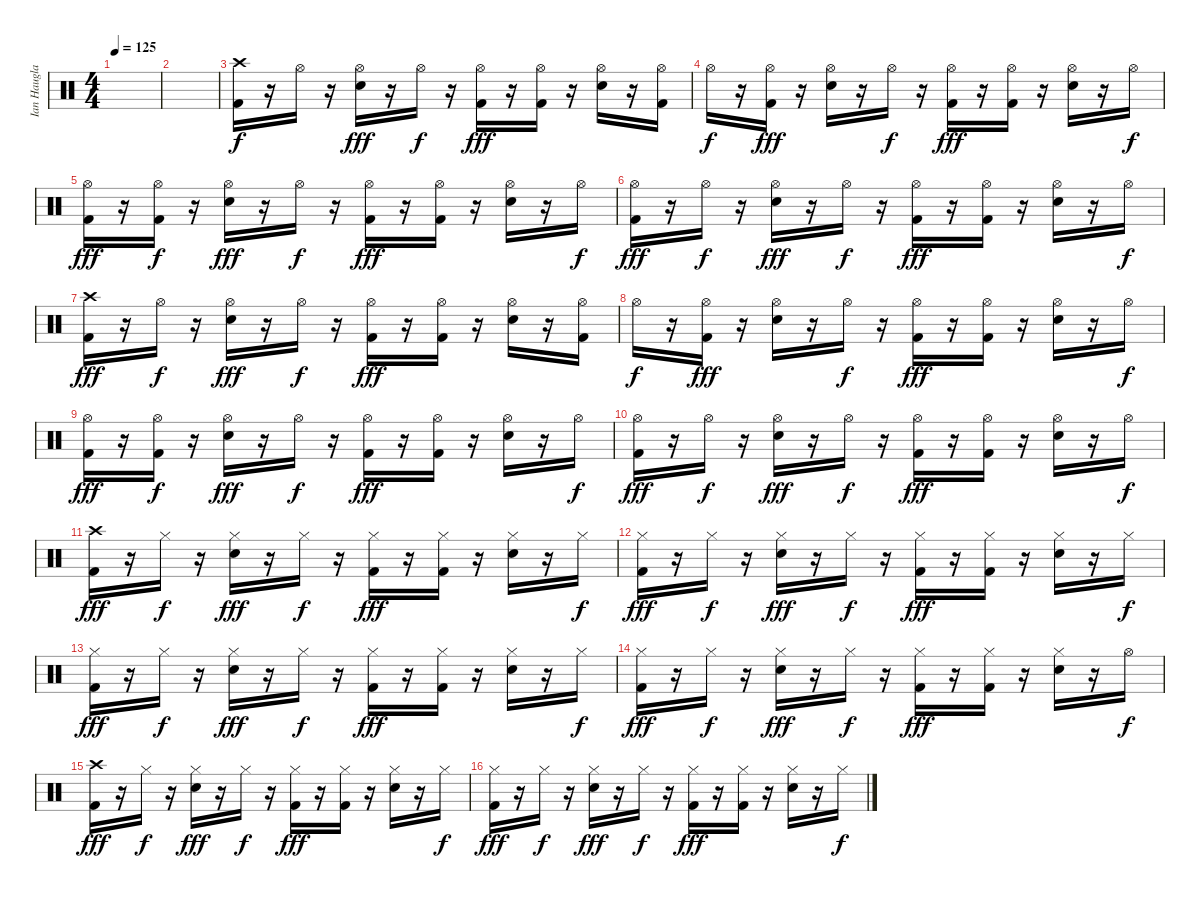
\track ("Ian Haugland" "Ian Haugla") {instrument percussion}
\staff {score}
\articulation defaults
\ts (4 4)
\tempo 125
\clef neutral
\ks c
|
|
("Crash high (hit)" "Kick (hit) 2").16 r.16 "Hi-Hat (open)".16{dy f} r.16 ("Hi-Hat (open)" "Electric Snare (hit)").16{dy fff} r.16 "Hi-Hat (open)".16{dy f} r.16 ("Hi-Hat (open)" "Kick (hit) 2").16{dy fff} r.16 ("Hi-Hat (open)" "Kick (hit) 2").16 r.16 ("Hi-Hat (open)" "Electric Snare (hit)").16 r.16 ("Hi-Hat (open)" "Kick (hit) 2").16 |
"Hi-Hat (open)".16{dy f} r.16 ("Hi-Hat (open)" "Kick (hit) 2").16{dy fff} r.16 ("Hi-Hat (open)" "Electric Snare (hit)").16 r.16 "Hi-Hat (open)".16{dy f} r.16 ("Hi-Hat (open)" "Kick (hit) 2").16{dy fff} r.16 ("Hi-Hat (open)" "Kick (hit) 2").16 r.16 ("Hi-Hat (open)" "Electric Snare (hit)").16 r.16 "Hi-Hat (open)".16{dy f} |
("Hi-Hat (open)" "Kick (hit) 2").16{dy fff} r.16 ("Hi-Hat (open)" "Kick (hit) 2").16{dy f} r.16 ("Hi-Hat (open)" "Electric Snare (hit)").16{dy fff} r.16 "Hi-Hat (open)".16{dy f} r.16 ("Hi-Hat (open)" "Kick (hit) 2").16{dy fff} r.16 ("Hi-Hat (open)" "Kick (hit) 2").16 r.16 ("Hi-Hat (open)" "Electric Snare (hit)").16 r.16 "Hi-Hat (open)".16{dy f} |
("Hi-Hat (open)" "Kick (hit) 2").16{dy fff} r.16 "Hi-Hat (open)".16{dy f} r.16 ("Hi-Hat (open)" "Electric Snare (hit)").16{dy fff} r.16 "Hi-Hat (open)".16{dy f} r.16 ("Hi-Hat (open)" "Kick (hit) 2").16{dy fff} r.16 ("Hi-Hat (open)" "Kick (hit) 2").16 r.16 ("Hi-Hat (open)" "Electric Snare (hit)").16 r.16 "Hi-Hat (open)".16{dy f} |
("Crash high (hit)" "Kick (hit) 2").16{dy fff} r.16 "Hi-Hat (open)".16{dy f} r.16 ("Hi-Hat (open)" "Electric Snare (hit)").16{dy fff} r.16 "Hi-Hat (open)".16{dy f} r.16 ("Hi-Hat (open)" "Kick (hit) 2").16{dy fff} r.16 ("Hi-Hat (open)" "Kick (hit) 2").16 r.16 ("Hi-Hat (open)" "Electric Snare (hit)").16 r.16 ("Hi-Hat (open)" "Kick (hit) 2").16 |
"Hi-Hat (open)".16{dy f} r.16 ("Hi-Hat (open)" "Kick (hit) 2").16{dy fff} r.16 ("Hi-Hat (open)" "Electric Snare (hit)").16 r.16 "Hi-Hat (open)".16{dy f} r.16 ("Hi-Hat (open)" "Kick (hit) 2").16{dy fff} r.16 ("Hi-Hat (open)" "Kick (hit) 2").16 r.16 ("Hi-Hat (open)" "Electric Snare (hit)").16 r.16 "Hi-Hat (open)".16{dy f} |
("Hi-Hat (open)" "Kick (hit) 2").16{dy fff} r.16 ("Hi-Hat (open)" "Kick (hit) 2").16{dy f} r.16 ("Hi-Hat (open)" "Electric Snare (hit)").16{dy fff} r.16 "Hi-Hat (open)".16{dy f} r.16 ("Hi-Hat (open)" "Kick (hit) 2").16{dy fff} r.16 ("Hi-Hat (open)" "Kick (hit) 2").16 r.16 ("Hi-Hat (open)" "Electric Snare (hit)").16 r.16 "Hi-Hat (open)".16{dy f} |
("Hi-Hat (open)" "Kick (hit) 2").16{dy fff} r.16 "Hi-Hat (open)".16{dy f} r.16 ("Hi-Hat (open)" "Electric Snare (hit)").16{dy fff} r.16 "Hi-Hat (open)".16{dy f} r.16 ("Hi-Hat (open)" "Kick (hit) 2").16{dy fff} r.16 ("Hi-Hat (open)" "Kick (hit) 2").16 r.16 ("Hi-Hat (open)" "Electric Snare (hit)").16 r.16 "Hi-Hat (open)".16{dy f} |
("Crash high (hit)" "Kick (hit) 2").16{dy fff} r.16 "Hi-Hat (closed)".16{dy f} r.16 ("Hi-Hat (closed)" "Electric Snare (hit)").16{dy fff} r.16 "Hi-Hat (closed)".16{dy f} r.16 ("Hi-Hat (closed)" "Kick (hit) 2").16{dy fff} r.16 ("Hi-Hat (closed)" "Kick (hit) 2").16 r.16 ("Hi-Hat (closed)" "Electric Snare (hit)").16 r.16 "Hi-Hat (closed)".16{dy f} |
("Hi-Hat (closed)" "Kick (hit) 2").16{dy fff} r.16 "Hi-Hat (closed)".16{dy f} r.16 ("Hi-Hat (closed)" "Electric Snare (hit)").16{dy fff} r.16 "Hi-Hat (closed)".16{dy f} r.16 ("Hi-Hat (closed)" "Kick (hit) 2").16{dy fff} r.16 ("Hi-Hat (closed)" "Kick (hit) 2").16 r.16 ("Hi-Hat (closed)" "Electric Snare (hit)").16 r.16 "Hi-Hat (closed)".16{dy f} |
("Hi-Hat (closed)" "Kick (hit) 2").16{dy fff} r.16 "Hi-Hat (closed)".16{dy f} r.16 ("Hi-Hat (closed)" "Electric Snare (hit)").16{dy fff} r.16 "Hi-Hat (closed)".16{dy f} r.16 ("Hi-Hat (closed)" "Kick (hit) 2").16{dy fff} r.16 ("Hi-Hat (closed)" "Kick (hit) 2").16 r.16 ("Hi-Hat (closed)" "Electric Snare (hit)").16 r.16 "Hi-Hat (closed)".16{dy f} |
("Hi-Hat (closed)" "Kick (hit) 2").16{dy fff} r.16 "Hi-Hat (closed)".16{dy f} r.16 ("Hi-Hat (closed)" "Electric Snare (hit)").16{dy fff} r.16 "Hi-Hat (closed)".16{dy f} r.16 ("Hi-Hat (closed)" "Kick (hit) 2").16{dy fff} r.16 ("Hi-Hat (closed)" "Kick (hit) 2").16 r.16 ("Hi-Hat (closed)" "Electric Snare (hit)").16 r.16 "Hi-Hat (open)".16{dy f} |
("Crash high (hit)" "Kick (hit) 2").16{dy fff} r.16 "Hi-Hat (closed)".16{dy f} r.16 ("Hi-Hat (closed)" "Electric Snare (hit)").16{dy fff} r.16 "Hi-Hat (closed)".16{dy f} r.16 ("Hi-Hat (closed)" "Kick (hit) 2").16{dy fff} r.16 ("Hi-Hat (closed)" "Kick (hit) 2").16 r.16 ("Hi-Hat (closed)" "Electric Snare (hit)").16 r.16 "Hi-Hat (closed)".16{dy f} |
("Hi-Hat (closed)" "Kick (hit) 2").16{dy fff} r.16 "Hi-Hat (closed)".16{dy f} r.16 ("Hi-Hat (closed)" "Electric Snare (hit)").16{dy fff} r.16 "Hi-Hat (closed)".16{dy f} r.16 ("Hi-Hat (closed)" "Kick (hit) 2").16{dy fff} r.16 ("Hi-Hat (closed)" "Kick (hit) 2").16 r.16 ("Hi-Hat (closed)" "Electric Snare (hit)").16 r.16 "Hi-Hat (closed)".16{dy f}
